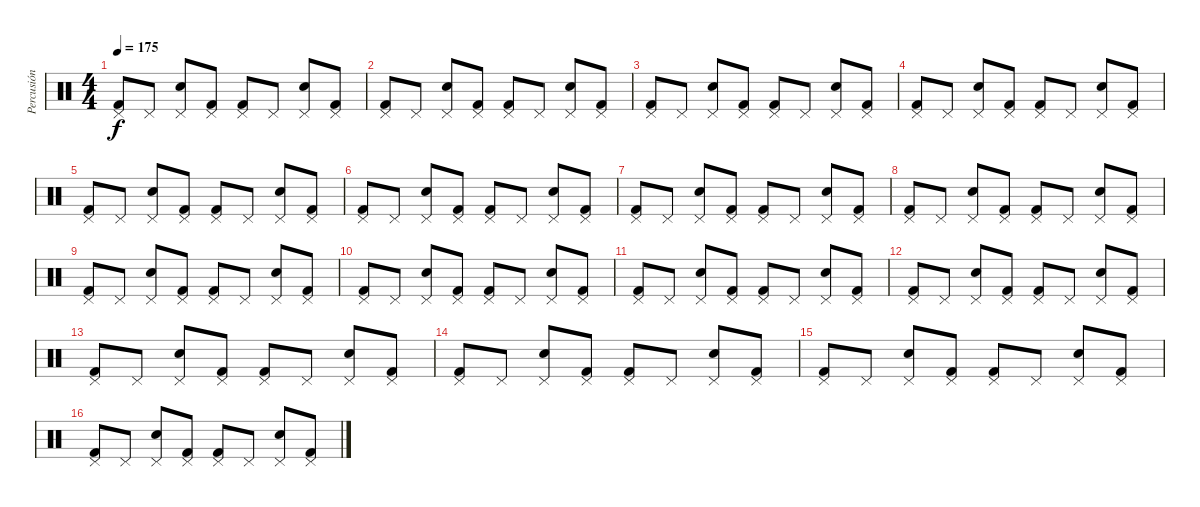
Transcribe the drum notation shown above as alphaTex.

\track ("Percusión" "Percusión") {instrument percussion}
\staff {score}
\articulation defaults
\ts (4 4)
\tempo 175
\clef neutral
\ks c
("Pedal Hi-Hat (hit)" "Kick (hit) 2").8{dy f} "Pedal Hi-Hat (hit)".8 ("Pedal Hi-Hat (hit)" "Electric Snare (hit)").8 ("Pedal Hi-Hat (hit)" "Kick (hit) 2").8 ("Pedal Hi-Hat (hit)" "Kick (hit) 2").8 "Pedal Hi-Hat (hit)".8 ("Pedal Hi-Hat (hit)" "Electric Snare (hit)").8 ("Pedal Hi-Hat (hit)" "Kick (hit) 2").8 |
("Pedal Hi-Hat (hit)" "Kick (hit) 2").8 "Pedal Hi-Hat (hit)".8 ("Pedal Hi-Hat (hit)" "Electric Snare (hit)").8 ("Pedal Hi-Hat (hit)" "Kick (hit) 2").8 ("Pedal Hi-Hat (hit)" "Kick (hit) 2").8 "Pedal Hi-Hat (hit)".8 ("Pedal Hi-Hat (hit)" "Electric Snare (hit)").8 ("Pedal Hi-Hat (hit)" "Kick (hit) 2").8 |
("Pedal Hi-Hat (hit)" "Kick (hit) 2").8 "Pedal Hi-Hat (hit)".8 ("Pedal Hi-Hat (hit)" "Electric Snare (hit)").8 ("Pedal Hi-Hat (hit)" "Kick (hit) 2").8 ("Pedal Hi-Hat (hit)" "Kick (hit) 2").8 "Pedal Hi-Hat (hit)".8 ("Pedal Hi-Hat (hit)" "Electric Snare (hit)").8 ("Pedal Hi-Hat (hit)" "Kick (hit) 2").8 |
("Pedal Hi-Hat (hit)" "Kick (hit) 2").8 "Pedal Hi-Hat (hit)".8 ("Pedal Hi-Hat (hit)" "Electric Snare (hit)").8 ("Pedal Hi-Hat (hit)" "Kick (hit) 2").8 ("Pedal Hi-Hat (hit)" "Kick (hit) 2").8 "Pedal Hi-Hat (hit)".8 ("Pedal Hi-Hat (hit)" "Electric Snare (hit)").8 ("Pedal Hi-Hat (hit)" "Kick (hit) 2").8 |
("Pedal Hi-Hat (hit)" "Kick (hit) 2").8 "Pedal Hi-Hat (hit)".8 ("Pedal Hi-Hat (hit)" "Electric Snare (hit)").8 ("Pedal Hi-Hat (hit)" "Kick (hit) 2").8 ("Pedal Hi-Hat (hit)" "Kick (hit) 2").8 "Pedal Hi-Hat (hit)".8 ("Pedal Hi-Hat (hit)" "Electric Snare (hit)").8 ("Pedal Hi-Hat (hit)" "Kick (hit) 2").8 |
("Pedal Hi-Hat (hit)" "Kick (hit) 2").8 "Pedal Hi-Hat (hit)".8 ("Pedal Hi-Hat (hit)" "Electric Snare (hit)").8 ("Pedal Hi-Hat (hit)" "Kick (hit) 2").8 ("Pedal Hi-Hat (hit)" "Kick (hit) 2").8 "Pedal Hi-Hat (hit)".8 ("Pedal Hi-Hat (hit)" "Electric Snare (hit)").8 ("Pedal Hi-Hat (hit)" "Kick (hit) 2").8 |
("Pedal Hi-Hat (hit)" "Kick (hit) 2").8 "Pedal Hi-Hat (hit)".8 ("Pedal Hi-Hat (hit)" "Electric Snare (hit)").8 ("Pedal Hi-Hat (hit)" "Kick (hit) 2").8 ("Pedal Hi-Hat (hit)" "Kick (hit) 2").8 "Pedal Hi-Hat (hit)".8 ("Pedal Hi-Hat (hit)" "Electric Snare (hit)").8 ("Pedal Hi-Hat (hit)" "Kick (hit) 2").8 |
("Pedal Hi-Hat (hit)" "Kick (hit) 2").8 "Pedal Hi-Hat (hit)".8 ("Pedal Hi-Hat (hit)" "Electric Snare (hit)").8 ("Pedal Hi-Hat (hit)" "Kick (hit) 2").8 ("Pedal Hi-Hat (hit)" "Kick (hit) 2").8 "Pedal Hi-Hat (hit)".8 ("Pedal Hi-Hat (hit)" "Electric Snare (hit)").8 ("Pedal Hi-Hat (hit)" "Kick (hit) 2").8 |
("Pedal Hi-Hat (hit)" "Kick (hit) 2").8 "Pedal Hi-Hat (hit)".8 ("Pedal Hi-Hat (hit)" "Electric Snare (hit)").8 ("Pedal Hi-Hat (hit)" "Kick (hit) 2").8 ("Pedal Hi-Hat (hit)" "Kick (hit) 2").8 "Pedal Hi-Hat (hit)".8 ("Pedal Hi-Hat (hit)" "Electric Snare (hit)").8 ("Pedal Hi-Hat (hit)" "Kick (hit) 2").8 |
("Pedal Hi-Hat (hit)" "Kick (hit) 2").8 "Pedal Hi-Hat (hit)".8 ("Pedal Hi-Hat (hit)" "Electric Snare (hit)").8 ("Pedal Hi-Hat (hit)" "Kick (hit) 2").8 ("Pedal Hi-Hat (hit)" "Kick (hit) 2").8 "Pedal Hi-Hat (hit)".8 ("Pedal Hi-Hat (hit)" "Electric Snare (hit)").8 ("Pedal Hi-Hat (hit)" "Kick (hit) 2").8 |
("Pedal Hi-Hat (hit)" "Kick (hit) 2").8 "Pedal Hi-Hat (hit)".8 ("Pedal Hi-Hat (hit)" "Electric Snare (hit)").8 ("Pedal Hi-Hat (hit)" "Kick (hit) 2").8 ("Pedal Hi-Hat (hit)" "Kick (hit) 2").8 "Pedal Hi-Hat (hit)".8 ("Pedal Hi-Hat (hit)" "Electric Snare (hit)").8 ("Pedal Hi-Hat (hit)" "Kick (hit) 2").8 |
("Pedal Hi-Hat (hit)" "Kick (hit) 2").8 "Pedal Hi-Hat (hit)".8 ("Pedal Hi-Hat (hit)" "Electric Snare (hit)").8 ("Pedal Hi-Hat (hit)" "Kick (hit) 2").8 ("Pedal Hi-Hat (hit)" "Kick (hit) 2").8 "Pedal Hi-Hat (hit)".8 ("Pedal Hi-Hat (hit)" "Electric Snare (hit)").8 ("Pedal Hi-Hat (hit)" "Kick (hit) 2").8 |
("Pedal Hi-Hat (hit)" "Kick (hit) 2").8 "Pedal Hi-Hat (hit)".8 ("Pedal Hi-Hat (hit)" "Electric Snare (hit)").8 ("Pedal Hi-Hat (hit)" "Kick (hit) 2").8 ("Pedal Hi-Hat (hit)" "Kick (hit) 2").8 "Pedal Hi-Hat (hit)".8 ("Pedal Hi-Hat (hit)" "Electric Snare (hit)").8 ("Pedal Hi-Hat (hit)" "Kick (hit) 2").8 |
("Pedal Hi-Hat (hit)" "Kick (hit) 2").8 "Pedal Hi-Hat (hit)".8 ("Pedal Hi-Hat (hit)" "Electric Snare (hit)").8 ("Pedal Hi-Hat (hit)" "Kick (hit) 2").8 ("Pedal Hi-Hat (hit)" "Kick (hit) 2").8 "Pedal Hi-Hat (hit)".8 ("Pedal Hi-Hat (hit)" "Electric Snare (hit)").8 ("Pedal Hi-Hat (hit)" "Kick (hit) 2").8 |
("Pedal Hi-Hat (hit)" "Kick (hit) 2").8 "Pedal Hi-Hat (hit)".8 ("Pedal Hi-Hat (hit)" "Electric Snare (hit)").8 ("Pedal Hi-Hat (hit)" "Kick (hit) 2").8 ("Pedal Hi-Hat (hit)" "Kick (hit) 2").8 "Pedal Hi-Hat (hit)".8 ("Pedal Hi-Hat (hit)" "Electric Snare (hit)").8 ("Pedal Hi-Hat (hit)" "Kick (hit) 2").8 |
("Pedal Hi-Hat (hit)" "Kick (hit) 2").8 "Pedal Hi-Hat (hit)".8 ("Pedal Hi-Hat (hit)" "Electric Snare (hit)").8 ("Pedal Hi-Hat (hit)" "Kick (hit) 2").8 ("Pedal Hi-Hat (hit)" "Kick (hit) 2").8 "Pedal Hi-Hat (hit)".8 ("Pedal Hi-Hat (hit)" "Electric Snare (hit)").8 ("Pedal Hi-Hat (hit)" "Kick (hit) 2").8
